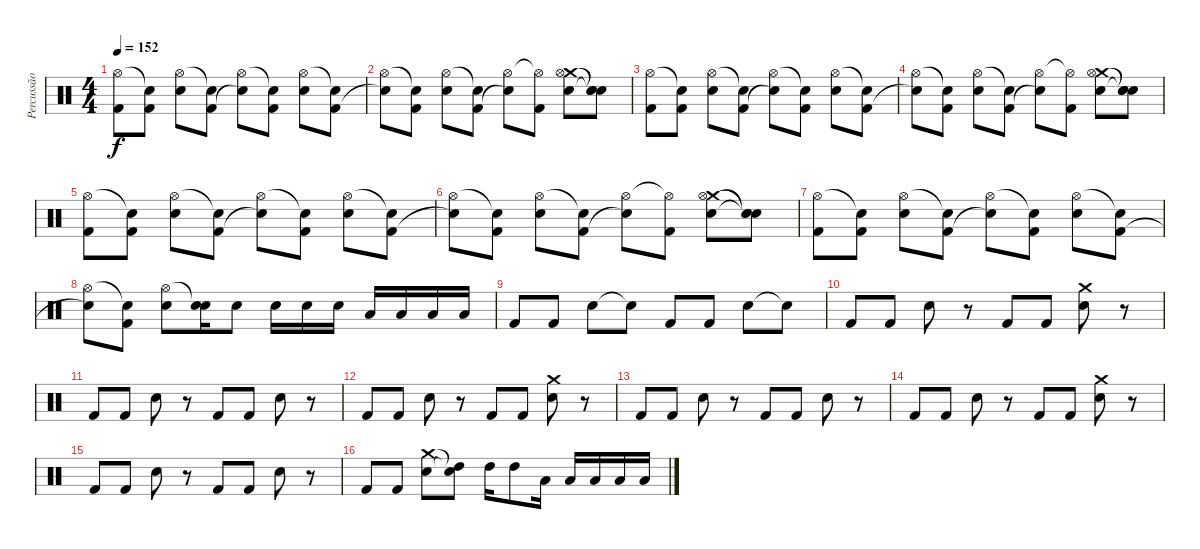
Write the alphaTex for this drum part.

\track ("Percussão" "Percussão") {instrument percussion}
\staff {score}
\articulation defaults
\ts (4 4)
\tempo 152
\clef neutral
\ks c
("Hi-Hat (open)" "Kick (hit) 2").8{dy f} ("Snare (hit)"{t} "Kick (hit) 2").8 ("Hi-Hat (open)" "Snare (hit) 2").8 ("Snare (hit)"{t} "Kick (hit) 2").8 ("Hi-Hat (open)" "Snare (hit)"{t}).8 ("Snare (hit)"{t} "Kick (hit) 2").8 ("Hi-Hat (open)" "Snare (hit) 2").8 ("Snare (hit)"{t} "Kick (hit) 2").8 |
("Hi-Hat (open)" "Snare (hit)"{t}).8 ("Snare (hit)"{t} "Kick (hit) 2").8 ("Hi-Hat (open)" "Snare (hit) 2").8 ("Snare (hit)"{t} "Kick (hit) 2").8 ("Hi-Hat (open)" "Snare (hit)"{t}).8 ("Hi-Hat (open)"{t} "Kick (hit) 2").8 ("Crash medium (hit)" "Snare (hit) 2" "Hi-Hat (open)").8 ("Snare (hit)"{t} "Snare (hit)"{t} "Snare (hit)"{t}).8 |
("Hi-Hat (open)" "Kick (hit) 2").8 ("Snare (hit)"{t} "Kick (hit) 2").8 ("Hi-Hat (open)" "Snare (hit) 2").8 ("Snare (hit)"{t} "Kick (hit) 2").8 ("Hi-Hat (open)" "Snare (hit)"{t}).8 ("Snare (hit)"{t} "Kick (hit) 2").8 ("Hi-Hat (open)" "Snare (hit) 2").8 ("Snare (hit)"{t} "Kick (hit) 2").8 |
("Hi-Hat (open)" "Snare (hit)"{t}).8 ("Snare (hit)"{t} "Kick (hit) 2").8 ("Hi-Hat (open)" "Snare (hit) 2").8 ("Snare (hit)"{t} "Kick (hit) 2").8 ("Hi-Hat (open)" "Snare (hit)"{t}).8 ("Hi-Hat (open)"{t} "Kick (hit) 2").8 ("Crash medium (hit)" "Snare (hit) 2" "Hi-Hat (open)").8 ("Snare (hit)"{t} "Snare (hit)"{t} "Snare (hit)"{t}).8 |
("Hi-Hat (open)" "Kick (hit) 2").8 ("Snare (hit)"{t} "Kick (hit) 2").8 ("Hi-Hat (open)" "Snare (hit) 2").8 ("Snare (hit)"{t} "Kick (hit) 2").8 ("Hi-Hat (open)" "Snare (hit)"{t}).8 ("Snare (hit)"{t} "Kick (hit) 2").8 ("Hi-Hat (open)" "Snare (hit) 2").8 ("Snare (hit)"{t} "Kick (hit) 2").8 |
("Hi-Hat (open)" "Snare (hit)"{t}).8 ("Snare (hit)"{t} "Kick (hit) 2").8 ("Hi-Hat (open)" "Snare (hit) 2").8 ("Snare (hit)"{t} "Kick (hit) 2").8 ("Hi-Hat (open)" "Snare (hit)"{t}).8 ("Hi-Hat (open)"{t} "Kick (hit) 2").8 ("Crash medium (hit)" "Snare (hit) 2" "Hi-Hat (open)").8 ("Snare (hit)"{t} "Snare (hit)"{t} "Snare (hit)"{t}).8 |
("Hi-Hat (open)" "Kick (hit) 2").8 ("Snare (hit)"{t} "Kick (hit) 2").8 ("Hi-Hat (open)" "Snare (hit) 2").8 ("Snare (hit)"{t} "Kick (hit) 2").8 ("Hi-Hat (open)" "Snare (hit)"{t}).8 ("Snare (hit)"{t} "Kick (hit) 2").8 ("Hi-Hat (open)" "Snare (hit) 2").8 ("Snare (hit)"{t} "Kick (hit) 2").8 |
("Hi-Hat (open)" "Snare (hit)"{t}).8 ("Snare (hit)"{t} "Kick (hit) 2").8 ("Hi-Hat (open)" "Snare (hit) 2").8 ("Snare (hit)"{t} "Snare (hit) 2").16 "Snare (hit) 2".8 "Snare (hit) 2".16 "Snare (hit) 2".16 "Snare (hit) 2".16 "Low Tom (hit)".16 "Low Tom (hit)".16 "Low Tom (hit)".16 "Low Tom (hit)".16 |
"Kick (hit) 2".8 "Kick (hit) 2".8 "Snare (hit) 2".8 "Snare (hit)"{t}.8 "Kick (hit) 2".8 "Kick (hit) 2".8 "Snare (hit) 2".8 "Snare (hit)"{t}.8 |
"Kick (hit) 2".8 "Kick (hit) 2".8 "Snare (hit) 2".8 r.8 "Kick (hit) 2".8 "Kick (hit) 2".8 ("Crash medium (hit)" "Snare (hit) 2").8 r.8 |
"Kick (hit) 2".8 "Kick (hit) 2".8 "Snare (hit) 2".8 r.8 "Kick (hit) 2".8 "Kick (hit) 2".8 "Snare (hit) 2".8 r.8 |
"Kick (hit) 2".8 "Kick (hit) 2".8 "Snare (hit) 2".8 r.8 "Kick (hit) 2".8 "Kick (hit) 2".8 ("Crash medium (hit)" "Snare (hit) 2").8 r.8 |
"Kick (hit) 2".8 "Kick (hit) 2".8 "Snare (hit) 2".8 r.8 "Kick (hit) 2".8 "Kick (hit) 2".8 "Snare (hit) 2".8 r.8 |
"Kick (hit) 2".8 "Kick (hit) 2".8 "Snare (hit) 2".8 r.8 "Kick (hit) 2".8 "Kick (hit) 2".8 ("Crash medium (hit)" "Snare (hit) 2").8 r.8 |
"Kick (hit) 2".8 "Kick (hit) 2".8 "Snare (hit) 2".8 r.8 "Kick (hit) 2".8 "Kick (hit) 2".8 "Snare (hit) 2".8 r.8 |
"Kick (hit) 2".8 "Kick (hit) 2".8 ("Crash medium (hit)" "Snare (hit) 2").8 ("Snare (hit)"{t} "High Tom (hit)"{t}).8 "High Tom (hit)".16 "High Tom (hit)".8 "Low Tom (hit)".16 "Low Tom (hit)".16 "Low Tom (hit)".16 "Low Tom (hit)".16 "Low Tom (hit)".16
